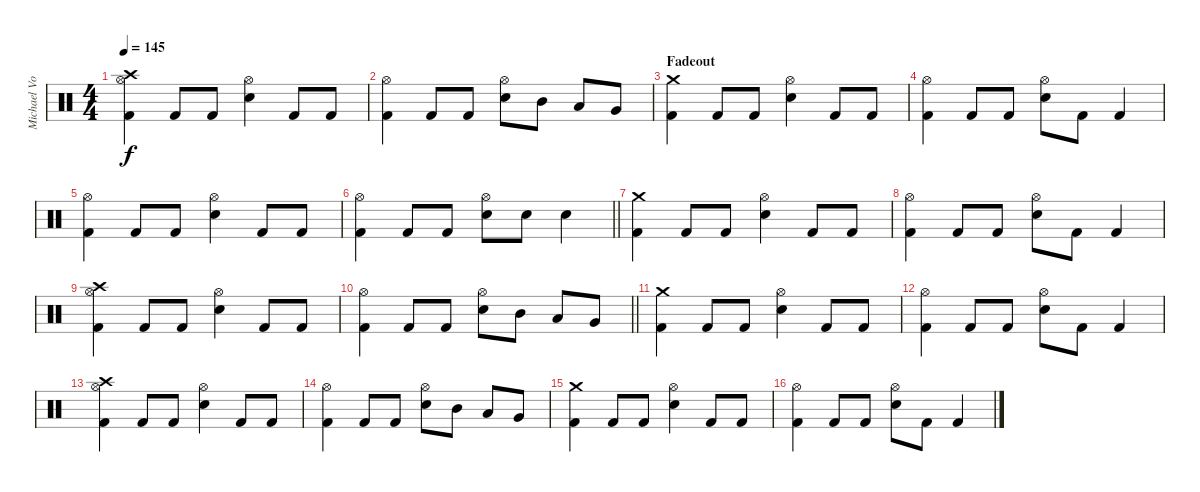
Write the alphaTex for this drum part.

\track ("Michael Von Knorring" "Michael Vo") {instrument percussion}
\staff {score}
\articulation defaults
\ts (4 4)
\tempo 145
\clef neutral
\ks c
("Crash high (hit)" "Hi-Hat (open)" "Kick (hit) 2").4{dy f} "Kick (hit) 2".8 "Kick (hit) 2".8 ("Hi-Hat (open)" "Snare (hit) 2").4 "Kick (hit) 2".8 "Kick (hit) 2".8 |
("Hi-Hat (open)" "Kick (hit) 2").4 "Kick (hit) 2".8 "Kick (hit) 2".8 ("Hi-Hat (open)" "Snare (hit) 2").8 "Mid Tom (hit)".8 "Low Tom (hit)".8 "Very Low Tom (hit)".8 |
\section ("" "Fadeout")
("Crash medium (hit)" "Kick (hit) 2").4 "Kick (hit) 2".8 "Kick (hit) 2".8 ("Hi-Hat (open)" "Snare (hit) 2").4 "Kick (hit) 2".8 "Kick (hit) 2".8 |
("Hi-Hat (open)" "Kick (hit) 2").4 "Kick (hit) 2".8 "Kick (hit) 2".8 ("Hi-Hat (open)" "Snare (hit) 2").8 "Kick (hit) 2".8 "Kick (hit) 2".4 |
("Hi-Hat (open)" "Kick (hit) 2").4 "Kick (hit) 2".8 "Kick (hit) 2".8 ("Hi-Hat (open)" "Snare (hit) 2").4 "Kick (hit) 2".8 "Kick (hit) 2".8 |
\barLineRight lightlight
("Hi-Hat (open)" "Kick (hit) 2").4 "Kick (hit) 2".8 "Kick (hit) 2".8 ("Hi-Hat (open)" "Snare (hit) 2").8 "Snare (hit) 2".8 "Snare (hit) 2".4 |
("Crash medium (hit)" "Kick (hit) 2").4 "Kick (hit) 2".8 "Kick (hit) 2".8 ("Hi-Hat (open)" "Snare (hit) 2").4 "Kick (hit) 2".8 "Kick (hit) 2".8 |
("Hi-Hat (open)" "Kick (hit) 2").4 "Kick (hit) 2".8 "Kick (hit) 2".8 ("Hi-Hat (open)" "Snare (hit) 2").8 "Kick (hit) 2".8 "Kick (hit) 2".4 |
("Crash high (hit)" "Hi-Hat (open)" "Kick (hit) 2").4 "Kick (hit) 2".8 "Kick (hit) 2".8 ("Hi-Hat (open)" "Snare (hit) 2").4 "Kick (hit) 2".8 "Kick (hit) 2".8 |
\barLineRight lightlight
("Hi-Hat (open)" "Kick (hit) 2").4 "Kick (hit) 2".8 "Kick (hit) 2".8 ("Hi-Hat (open)" "Snare (hit) 2").8 "Mid Tom (hit)".8 "Low Tom (hit)".8 "Very Low Tom (hit)".8 |
("Crash medium (hit)" "Kick (hit) 2").4 "Kick (hit) 2".8 "Kick (hit) 2".8 ("Hi-Hat (open)" "Snare (hit) 2").4 "Kick (hit) 2".8 "Kick (hit) 2".8 |
("Hi-Hat (open)" "Kick (hit) 2").4 "Kick (hit) 2".8 "Kick (hit) 2".8 ("Hi-Hat (open)" "Snare (hit) 2").8 "Kick (hit) 2".8 "Kick (hit) 2".4 |
("Crash high (hit)" "Hi-Hat (open)" "Kick (hit) 2").4 "Kick (hit) 2".8 "Kick (hit) 2".8 ("Hi-Hat (open)" "Snare (hit) 2").4 "Kick (hit) 2".8 "Kick (hit) 2".8 |
("Hi-Hat (open)" "Kick (hit) 2").4 "Kick (hit) 2".8 "Kick (hit) 2".8 ("Hi-Hat (open)" "Snare (hit) 2").8 "Mid Tom (hit)".8 "Low Tom (hit)".8 "Very Low Tom (hit)".8 |
("Crash medium (hit)" "Kick (hit) 2").4 "Kick (hit) 2".8 "Kick (hit) 2".8 ("Hi-Hat (open)" "Snare (hit) 2").4 "Kick (hit) 2".8 "Kick (hit) 2".8 |
("Hi-Hat (open)" "Kick (hit) 2").4 "Kick (hit) 2".8 "Kick (hit) 2".8 ("Hi-Hat (open)" "Snare (hit) 2").8 "Kick (hit) 2".8 "Kick (hit) 2".4
